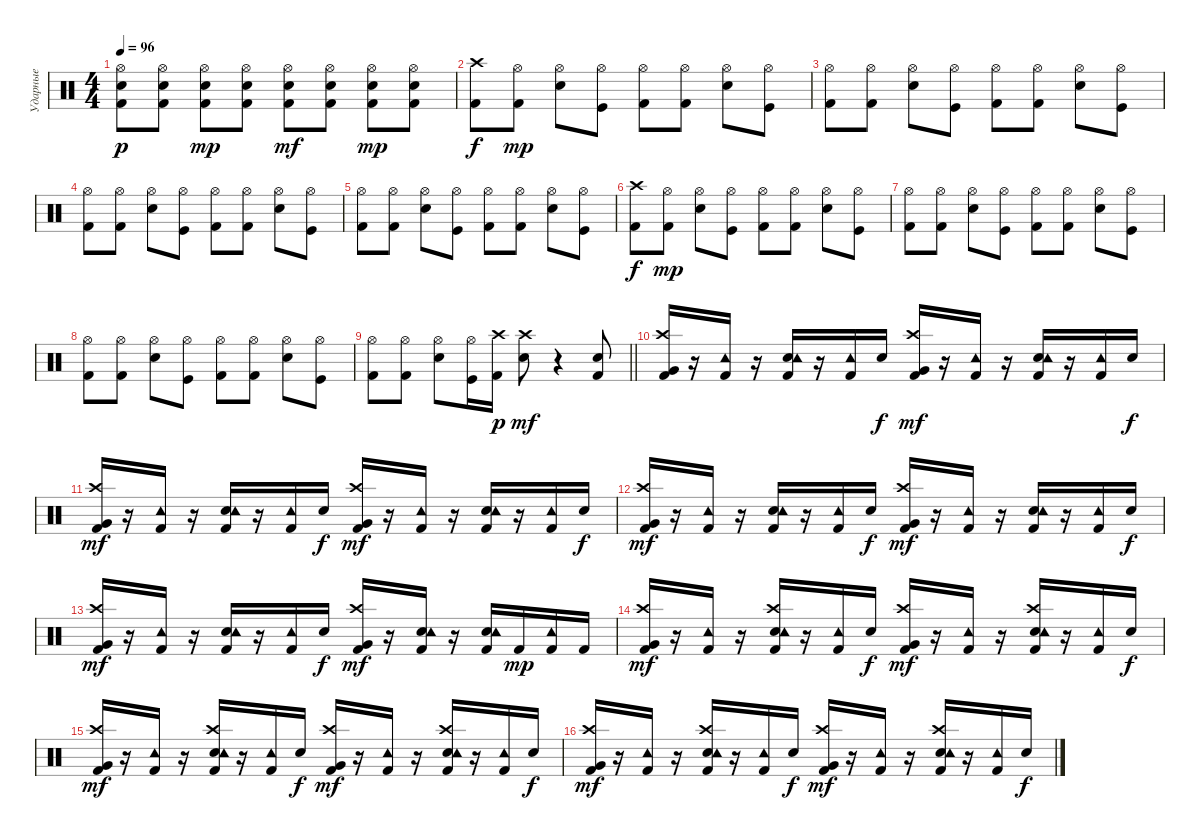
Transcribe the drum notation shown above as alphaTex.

\track ("Ударные" "Ударные") {instrument percussion}
\staff {score}
\articulation defaults
\ts (4 4)
\tempo 96
\clef neutral
\ks c
("Hi-Hat (open)" "Electric Snare (hit)" "Kick (hit) 2").8{dy p} ("Hi-Hat (open)" "Electric Snare (hit)" "Kick (hit) 2").8 ("Hi-Hat (open)" "Electric Snare (hit)" "Kick (hit) 2").8{dy mp} ("Hi-Hat (open)" "Electric Snare (hit)" "Kick (hit) 2").8 ("Hi-Hat (open)" "Electric Snare (hit)" "Kick (hit) 2").8{dy mf} ("Hi-Hat (open)" "Electric Snare (hit)" "Kick (hit) 2").8 ("Hi-Hat (open)" "Electric Snare (hit)" "Kick (hit) 2").8{dy mp} ("Hi-Hat (open)" "Electric Snare (hit)" "Kick (hit) 2").8 |
("Crash high (hit)" "Kick (hit) 2").8{dy f} ("Hi-Hat (open)" "Kick (hit) 2").8{dy mp} ("Hi-Hat (open)" "Electric Snare (hit)").8 ("Hi-Hat (open)" "Kick (hit)").8 ("Hi-Hat (open)" "Kick (hit) 2").8 ("Hi-Hat (open)" "Kick (hit) 2").8 ("Hi-Hat (open)" "Electric Snare (hit)").8 ("Hi-Hat (open)" "Kick (hit)").8 |
("Hi-Hat (open)" "Kick (hit) 2").8 ("Hi-Hat (open)" "Kick (hit) 2").8 ("Hi-Hat (open)" "Electric Snare (hit)").8 ("Hi-Hat (open)" "Kick (hit)").8 ("Hi-Hat (open)" "Kick (hit) 2").8 ("Hi-Hat (open)" "Kick (hit) 2").8 ("Hi-Hat (open)" "Electric Snare (hit)").8 ("Hi-Hat (open)" "Kick (hit)").8 |
("Hi-Hat (open)" "Kick (hit) 2").8 ("Hi-Hat (open)" "Kick (hit) 2").8 ("Hi-Hat (open)" "Electric Snare (hit)").8 ("Hi-Hat (open)" "Kick (hit)").8 ("Hi-Hat (open)" "Kick (hit) 2").8 ("Hi-Hat (open)" "Kick (hit) 2").8 ("Hi-Hat (open)" "Electric Snare (hit)").8 ("Hi-Hat (open)" "Kick (hit)").8 |
("Hi-Hat (open)" "Kick (hit) 2").8 ("Hi-Hat (open)" "Kick (hit) 2").8 ("Hi-Hat (open)" "Electric Snare (hit)").8 ("Hi-Hat (open)" "Kick (hit)").8 ("Hi-Hat (open)" "Kick (hit) 2").8 ("Hi-Hat (open)" "Kick (hit) 2").8 ("Hi-Hat (open)" "Electric Snare (hit)").8 ("Hi-Hat (open)" "Kick (hit)").8 |
("Crash high (hit)" "Kick (hit) 2").8{dy f} ("Hi-Hat (open)" "Kick (hit) 2").8{dy mp} ("Hi-Hat (open)" "Electric Snare (hit)").8 ("Hi-Hat (open)" "Kick (hit)").8 ("Hi-Hat (open)" "Kick (hit) 2").8 ("Hi-Hat (open)" "Kick (hit) 2").8 ("Hi-Hat (open)" "Electric Snare (hit)").8 ("Hi-Hat (open)" "Kick (hit)").8 |
("Hi-Hat (open)" "Kick (hit) 2").8 ("Hi-Hat (open)" "Kick (hit) 2").8 ("Hi-Hat (open)" "Electric Snare (hit)").8 ("Hi-Hat (open)" "Kick (hit)").8 ("Hi-Hat (open)" "Kick (hit) 2").8 ("Hi-Hat (open)" "Kick (hit) 2").8 ("Hi-Hat (open)" "Electric Snare (hit)").8 ("Hi-Hat (open)" "Kick (hit)").8 |
("Hi-Hat (open)" "Kick (hit) 2").8 ("Hi-Hat (open)" "Kick (hit) 2").8 ("Hi-Hat (open)" "Electric Snare (hit)").8 ("Hi-Hat (open)" "Kick (hit)").8 ("Hi-Hat (open)" "Kick (hit) 2").8 ("Hi-Hat (open)" "Kick (hit) 2").8 ("Hi-Hat (open)" "Electric Snare (hit)").8 ("Hi-Hat (open)" "Kick (hit)").8 |
\barLineRight lightlight
("Hi-Hat (open)" "Kick (hit) 2").8 ("Hi-Hat (open)" "Kick (hit) 2").8 ("Hi-Hat (open)" "Electric Snare (hit)").8 ("Hi-Hat (open)" "Kick (hit)").16 ("Crash high (hit)" "Kick (hit) 2").16{dy p} ("Crash high (hit)" "Electric Snare (hit)").8{dy mf} r.4 ("Electric Snare (hit)" "Kick (hit) 2").8 |
("Very Low Tom (hit)" "Crash high (hit)" "Kick (hit) 2").16 r.16 ("Tambourine (hit)" "Kick (hit) 2").16 r.16 ("Electric Snare (hit)" "Tambourine (hit)" "Kick (hit) 2").16 r.16 ("Tambourine (hit)" "Kick (hit) 2").16 "Electric Snare (hit)".16{dy f} ("Very Low Tom (hit)" "Crash high (hit)" "Kick (hit) 2").16{dy mf} r.16 ("Tambourine (hit)" "Kick (hit) 2").16 r.16 ("Electric Snare (hit)" "Tambourine (hit)" "Kick (hit) 2").16 r.16 ("Tambourine (hit)" "Kick (hit) 2").16 "Electric Snare (hit)".16{dy f} |
("Very Low Tom (hit)" "Crash high (hit)" "Kick (hit) 2").16{dy mf} r.16 ("Tambourine (hit)" "Kick (hit) 2").16 r.16 ("Electric Snare (hit)" "Tambourine (hit)" "Kick (hit) 2").16 r.16 ("Tambourine (hit)" "Kick (hit) 2").16 "Electric Snare (hit)".16{dy f} ("Very Low Tom (hit)" "Crash high (hit)" "Kick (hit) 2").16{dy mf} r.16 ("Tambourine (hit)" "Kick (hit) 2").16 r.16 ("Electric Snare (hit)" "Tambourine (hit)" "Kick (hit) 2").16 r.16 ("Tambourine (hit)" "Kick (hit) 2").16 "Electric Snare (hit)".16{dy f} |
("Very Low Tom (hit)" "Crash high (hit)" "Kick (hit) 2").16{dy mf} r.16 ("Tambourine (hit)" "Kick (hit) 2").16 r.16 ("Electric Snare (hit)" "Tambourine (hit)" "Kick (hit) 2").16 r.16 ("Tambourine (hit)" "Kick (hit) 2").16 "Electric Snare (hit)".16{dy f} ("Very Low Tom (hit)" "Crash high (hit)" "Kick (hit) 2").16{dy mf} r.16 ("Tambourine (hit)" "Kick (hit) 2").16 r.16 ("Electric Snare (hit)" "Tambourine (hit)" "Kick (hit) 2").16 r.16 ("Tambourine (hit)" "Kick (hit) 2").16 "Electric Snare (hit)".16{dy f} |
("Very Low Tom (hit)" "Crash high (hit)" "Kick (hit) 2").16{dy mf} r.16 ("Tambourine (hit)" "Kick (hit) 2").16 r.16 ("Electric Snare (hit)" "Tambourine (hit)" "Kick (hit) 2").16 r.16 ("Tambourine (hit)" "Kick (hit) 2").16 "Electric Snare (hit)".16{dy f} ("Very Low Tom (hit)" "Crash high (hit)" "Kick (hit) 2").16{dy mf} r.16 ("Electric Snare (hit)" "Tambourine (hit)" "Kick (hit) 2").16 r.16 ("Electric Snare (hit)" "Tambourine (hit)" "Kick (hit) 2").16 "Kick (hit) 2".16{dy mp} ("Tambourine (hit)" "Kick (hit) 2").16 "Kick (hit) 2".16 |
("Very Low Tom (hit)" "Crash high (hit)" "Kick (hit) 2").16{dy mf} r.16 ("Tambourine (hit)" "Kick (hit) 2").16 r.16 ("Electric Snare (hit)" "Crash high (hit)" "Tambourine (hit)" "Kick (hit) 2").16 r.16 ("Tambourine (hit)" "Kick (hit) 2").16 "Electric Snare (hit)".16{dy f} ("Very Low Tom (hit)" "Crash high (hit)" "Kick (hit) 2").16{dy mf} r.16 ("Tambourine (hit)" "Kick (hit) 2").16 r.16 ("Electric Snare (hit)" "Crash high (hit)" "Tambourine (hit)" "Kick (hit) 2").16 r.16 ("Tambourine (hit)" "Kick (hit) 2").16 "Electric Snare (hit)".16{dy f} |
("Very Low Tom (hit)" "Crash high (hit)" "Kick (hit) 2").16{dy mf} r.16 ("Tambourine (hit)" "Kick (hit) 2").16 r.16 ("Electric Snare (hit)" "Crash high (hit)" "Tambourine (hit)" "Kick (hit) 2").16 r.16 ("Tambourine (hit)" "Kick (hit) 2").16 "Electric Snare (hit)".16{dy f} ("Very Low Tom (hit)" "Crash high (hit)" "Kick (hit) 2").16{dy mf} r.16 ("Tambourine (hit)" "Kick (hit) 2").16 r.16 ("Electric Snare (hit)" "Crash high (hit)" "Tambourine (hit)" "Kick (hit) 2").16 r.16 ("Tambourine (hit)" "Kick (hit) 2").16 "Electric Snare (hit)".16{dy f} |
("Very Low Tom (hit)" "Crash high (hit)" "Kick (hit) 2").16{dy mf} r.16 ("Tambourine (hit)" "Kick (hit) 2").16 r.16 ("Electric Snare (hit)" "Crash high (hit)" "Tambourine (hit)" "Kick (hit) 2").16 r.16 ("Tambourine (hit)" "Kick (hit) 2").16 "Electric Snare (hit)".16{dy f} ("Very Low Tom (hit)" "Crash high (hit)" "Kick (hit) 2").16{dy mf} r.16 ("Tambourine (hit)" "Kick (hit) 2").16 r.16 ("Electric Snare (hit)" "Crash high (hit)" "Tambourine (hit)" "Kick (hit) 2").16 r.16 ("Tambourine (hit)" "Kick (hit) 2").16 "Electric Snare (hit)".16{dy f}
